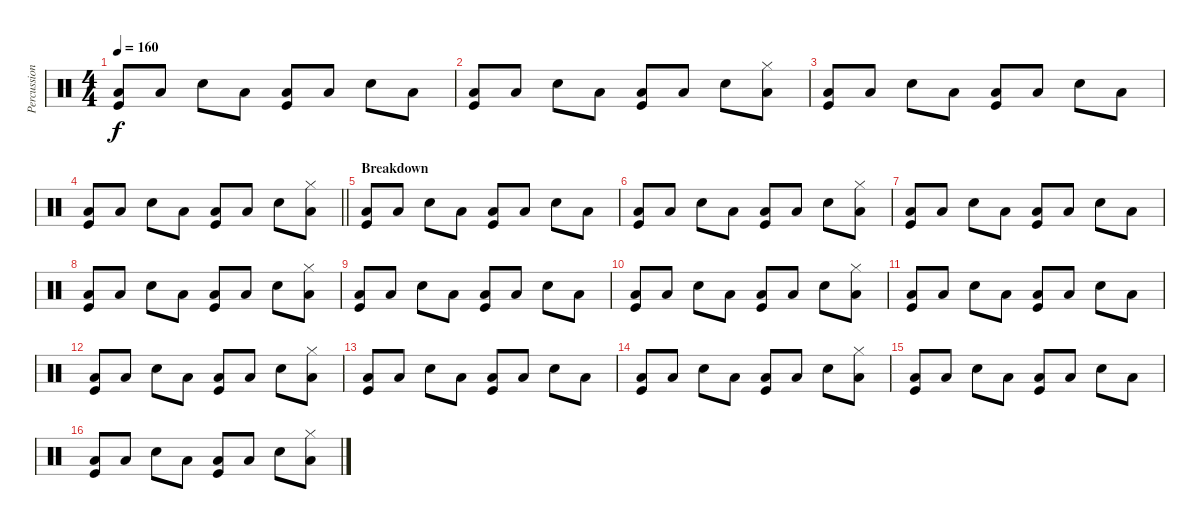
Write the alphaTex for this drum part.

\track ("Percussion" "Percussion") {instrument percussion}
\staff {score}
\articulation defaults
\ts (4 4)
\tempo 160
\clef neutral
\ks c
("Kick (hit)" "Low Floor Tom (hit)").8{dy f} "Low Floor Tom (hit)".8 "Electric Snare (hit)".8 "Low Floor Tom (hit)".8 ("Kick (hit)" "Low Floor Tom (hit)").8 "Low Floor Tom (hit)".8 "Electric Snare (hit)".8 "Low Floor Tom (hit)".8 |
("Kick (hit)" "Low Floor Tom (hit)").8 "Low Floor Tom (hit)".8 "Electric Snare (hit)".8 "Low Floor Tom (hit)".8 ("Kick (hit)" "Low Floor Tom (hit)").8 "Low Floor Tom (hit)".8 "Electric Snare (hit)".8 ("Low Floor Tom (hit)" "Hi-Hat (closed)").8 |
("Kick (hit)" "Low Floor Tom (hit)").8 "Low Floor Tom (hit)".8 "Electric Snare (hit)".8 "Low Floor Tom (hit)".8 ("Kick (hit)" "Low Floor Tom (hit)").8 "Low Floor Tom (hit)".8 "Electric Snare (hit)".8 "Low Floor Tom (hit)".8 |
\barLineRight lightlight
("Kick (hit)" "Low Floor Tom (hit)").8 "Low Floor Tom (hit)".8 "Electric Snare (hit)".8 "Low Floor Tom (hit)".8 ("Kick (hit)" "Low Floor Tom (hit)").8 "Low Floor Tom (hit)".8 "Electric Snare (hit)".8 ("Low Floor Tom (hit)" "Hi-Hat (closed)").8 |
\section ("" "Breakdown")
("Kick (hit)" "Low Floor Tom (hit)").8 "Low Floor Tom (hit)".8 "Electric Snare (hit)".8 "Low Floor Tom (hit)".8 ("Kick (hit)" "Low Floor Tom (hit)").8 "Low Floor Tom (hit)".8 "Electric Snare (hit)".8 "Low Floor Tom (hit)".8 |
("Kick (hit)" "Low Floor Tom (hit)").8 "Low Floor Tom (hit)".8 "Electric Snare (hit)".8 "Low Floor Tom (hit)".8 ("Kick (hit)" "Low Floor Tom (hit)").8 "Low Floor Tom (hit)".8 "Electric Snare (hit)".8 ("Low Floor Tom (hit)" "Hi-Hat (closed)").8 |
("Kick (hit)" "Low Floor Tom (hit)").8 "Low Floor Tom (hit)".8 "Electric Snare (hit)".8 "Low Floor Tom (hit)".8 ("Kick (hit)" "Low Floor Tom (hit)").8 "Low Floor Tom (hit)".8 "Electric Snare (hit)".8 "Low Floor Tom (hit)".8 |
("Kick (hit)" "Low Floor Tom (hit)").8 "Low Floor Tom (hit)".8 "Electric Snare (hit)".8 "Low Floor Tom (hit)".8 ("Kick (hit)" "Low Floor Tom (hit)").8 "Low Floor Tom (hit)".8 "Electric Snare (hit)".8 ("Low Floor Tom (hit)" "Hi-Hat (closed)").8 |
("Kick (hit)" "Low Floor Tom (hit)").8 "Low Floor Tom (hit)".8 "Electric Snare (hit)".8 "Low Floor Tom (hit)".8 ("Kick (hit)" "Low Floor Tom (hit)").8 "Low Floor Tom (hit)".8 "Electric Snare (hit)".8 "Low Floor Tom (hit)".8 |
("Kick (hit)" "Low Floor Tom (hit)").8 "Low Floor Tom (hit)".8 "Electric Snare (hit)".8 "Low Floor Tom (hit)".8 ("Kick (hit)" "Low Floor Tom (hit)").8 "Low Floor Tom (hit)".8 "Electric Snare (hit)".8 ("Low Floor Tom (hit)" "Hi-Hat (closed)").8 |
("Kick (hit)" "Low Floor Tom (hit)").8 "Low Floor Tom (hit)".8 "Electric Snare (hit)".8 "Low Floor Tom (hit)".8 ("Kick (hit)" "Low Floor Tom (hit)").8 "Low Floor Tom (hit)".8 "Electric Snare (hit)".8 "Low Floor Tom (hit)".8 |
("Kick (hit)" "Low Floor Tom (hit)").8 "Low Floor Tom (hit)".8 "Electric Snare (hit)".8 "Low Floor Tom (hit)".8 ("Kick (hit)" "Low Floor Tom (hit)").8 "Low Floor Tom (hit)".8 "Electric Snare (hit)".8 ("Low Floor Tom (hit)" "Hi-Hat (closed)").8 |
("Kick (hit)" "Low Floor Tom (hit)").8 "Low Floor Tom (hit)".8 "Electric Snare (hit)".8 "Low Floor Tom (hit)".8 ("Kick (hit)" "Low Floor Tom (hit)").8 "Low Floor Tom (hit)".8 "Electric Snare (hit)".8 "Low Floor Tom (hit)".8 |
("Kick (hit)" "Low Floor Tom (hit)").8 "Low Floor Tom (hit)".8 "Electric Snare (hit)".8 "Low Floor Tom (hit)".8 ("Kick (hit)" "Low Floor Tom (hit)").8 "Low Floor Tom (hit)".8 "Electric Snare (hit)".8 ("Low Floor Tom (hit)" "Hi-Hat (closed)").8 |
("Kick (hit)" "Low Floor Tom (hit)").8 "Low Floor Tom (hit)".8 "Electric Snare (hit)".8 "Low Floor Tom (hit)".8 ("Kick (hit)" "Low Floor Tom (hit)").8 "Low Floor Tom (hit)".8 "Electric Snare (hit)".8 "Low Floor Tom (hit)".8 |
("Kick (hit)" "Low Floor Tom (hit)").8 "Low Floor Tom (hit)".8 "Electric Snare (hit)".8 "Low Floor Tom (hit)".8 ("Kick (hit)" "Low Floor Tom (hit)").8 "Low Floor Tom (hit)".8 "Electric Snare (hit)".8 ("Low Floor Tom (hit)" "Hi-Hat (closed)").8
